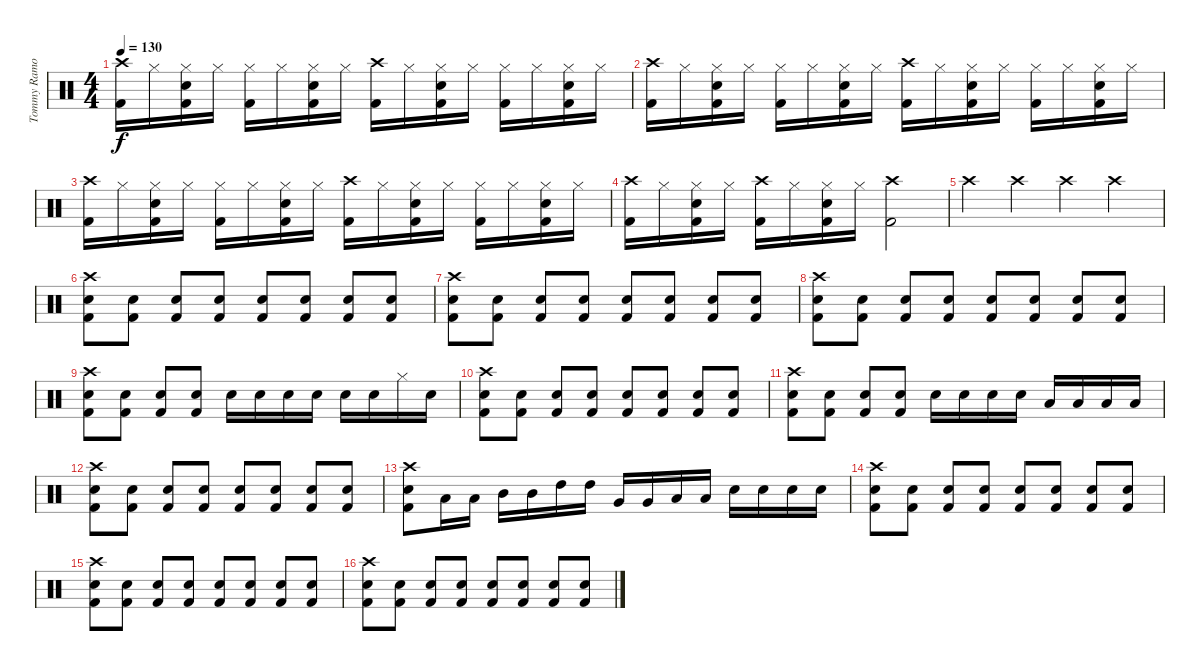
\track ("Tommy Ramone - Percusion" "Tommy Ramo") {instrument percussion}
\staff {score}
\articulation defaults
\ts (4 4)
\tempo 130
\clef neutral
\ks c
("Crash high (hit)" "Kick (hit) 2").16{dy f} "Hi-Hat (closed)".16 ("Hi-Hat (closed)" "Electric Snare (hit)" "Kick (hit) 2").16 "Hi-Hat (closed)".16 ("Hi-Hat (closed)" "Kick (hit) 2").16 "Hi-Hat (closed)".16 ("Hi-Hat (closed)" "Electric Snare (hit)" "Kick (hit) 2").16 "Hi-Hat (closed)".16 ("Crash high (hit)" "Kick (hit) 2").16 "Hi-Hat (closed)".16 ("Hi-Hat (closed)" "Electric Snare (hit)" "Kick (hit) 2").16 "Hi-Hat (closed)".16 ("Hi-Hat (closed)" "Kick (hit) 2").16 "Hi-Hat (closed)".16 ("Hi-Hat (closed)" "Electric Snare (hit)" "Kick (hit) 2").16 "Hi-Hat (closed)".16 |
("Crash high (hit)" "Kick (hit) 2").16 "Hi-Hat (closed)".16 ("Hi-Hat (closed)" "Electric Snare (hit)" "Kick (hit) 2").16 "Hi-Hat (closed)".16 ("Hi-Hat (closed)" "Kick (hit) 2").16 "Hi-Hat (closed)".16 ("Hi-Hat (closed)" "Electric Snare (hit)" "Kick (hit) 2").16 "Hi-Hat (closed)".16 ("Crash high (hit)" "Kick (hit) 2").16 "Hi-Hat (closed)".16 ("Hi-Hat (closed)" "Electric Snare (hit)" "Kick (hit) 2").16 "Hi-Hat (closed)".16 ("Hi-Hat (closed)" "Kick (hit) 2").16 "Hi-Hat (closed)".16 ("Hi-Hat (closed)" "Electric Snare (hit)" "Kick (hit) 2").16 "Hi-Hat (closed)".16 |
("Crash high (hit)" "Kick (hit) 2").16 "Hi-Hat (closed)".16 ("Hi-Hat (closed)" "Electric Snare (hit)" "Kick (hit) 2").16 "Hi-Hat (closed)".16 ("Hi-Hat (closed)" "Kick (hit) 2").16 "Hi-Hat (closed)".16 ("Hi-Hat (closed)" "Electric Snare (hit)" "Kick (hit) 2").16 "Hi-Hat (closed)".16 ("Crash high (hit)" "Kick (hit) 2").16 "Hi-Hat (closed)".16 ("Hi-Hat (closed)" "Electric Snare (hit)" "Kick (hit) 2").16 "Hi-Hat (closed)".16 ("Hi-Hat (closed)" "Kick (hit) 2").16 "Hi-Hat (closed)".16 ("Hi-Hat (closed)" "Electric Snare (hit)" "Kick (hit) 2").16 "Hi-Hat (closed)".16 |
("Crash high (hit)" "Kick (hit) 2").16 "Hi-Hat (closed)".16 ("Hi-Hat (closed)" "Electric Snare (hit)" "Kick (hit) 2").16 "Hi-Hat (closed)".16 ("Crash high (hit)" "Kick (hit) 2").16 "Hi-Hat (closed)".16 ("Hi-Hat (closed)" "Electric Snare (hit)" "Kick (hit) 2").16 "Hi-Hat (closed)".16 ("Crash high (hit)" "Kick (hit) 2").2 |
"Crash high (hit)".4 "Crash high (hit)".4 "Crash high (hit)".4 "Crash high (hit)".4 |
("Crash high (hit)" "Electric Snare (hit)" "Kick (hit) 2").8 ("Electric Snare (hit)" "Kick (hit) 2").8 ("Electric Snare (hit)" "Kick (hit) 2").8 ("Electric Snare (hit)" "Kick (hit) 2").8 ("Electric Snare (hit)" "Kick (hit) 2").8 ("Electric Snare (hit)" "Kick (hit) 2").8 ("Electric Snare (hit)" "Kick (hit) 2").8 ("Electric Snare (hit)" "Kick (hit) 2").8 |
("Crash high (hit)" "Electric Snare (hit)" "Kick (hit) 2").8 ("Electric Snare (hit)" "Kick (hit) 2").8 ("Electric Snare (hit)" "Kick (hit) 2").8 ("Electric Snare (hit)" "Kick (hit) 2").8 ("Electric Snare (hit)" "Kick (hit) 2").8 ("Electric Snare (hit)" "Kick (hit) 2").8 ("Electric Snare (hit)" "Kick (hit) 2").8 ("Electric Snare (hit)" "Kick (hit) 2").8 |
("Crash high (hit)" "Electric Snare (hit)" "Kick (hit) 2").8 ("Electric Snare (hit)" "Kick (hit) 2").8 ("Electric Snare (hit)" "Kick (hit) 2").8 ("Electric Snare (hit)" "Kick (hit) 2").8 ("Electric Snare (hit)" "Kick (hit) 2").8 ("Electric Snare (hit)" "Kick (hit) 2").8 ("Electric Snare (hit)" "Kick (hit) 2").8 ("Electric Snare (hit)" "Kick (hit) 2").8 |
("Crash high (hit)" "Electric Snare (hit)" "Kick (hit) 2").8 ("Electric Snare (hit)" "Kick (hit) 2").8 ("Electric Snare (hit)" "Kick (hit) 2").8 ("Electric Snare (hit)" "Kick (hit) 2").8 "Electric Snare (hit)".16 "Electric Snare (hit)".16 "Electric Snare (hit)".16 "Electric Snare (hit)".16 "Electric Snare (hit)".16 "Electric Snare (hit)".16 "Hi-Hat (closed)".16 "Electric Snare (hit)".16 |
("Crash high (hit)" "Electric Snare (hit)" "Kick (hit) 2").8 ("Electric Snare (hit)" "Kick (hit) 2").8 ("Electric Snare (hit)" "Kick (hit) 2").8 ("Electric Snare (hit)" "Kick (hit) 2").8 ("Electric Snare (hit)" "Kick (hit) 2").8 ("Electric Snare (hit)" "Kick (hit) 2").8 ("Electric Snare (hit)" "Kick (hit) 2").8 ("Electric Snare (hit)" "Kick (hit) 2").8 |
("Crash high (hit)" "Electric Snare (hit)" "Kick (hit) 2").8 ("Electric Snare (hit)" "Kick (hit) 2").8 ("Electric Snare (hit)" "Kick (hit) 2").8 ("Electric Snare (hit)" "Kick (hit) 2").8 "Electric Snare (hit)".16 "Electric Snare (hit)".16 "Electric Snare (hit)".16 "Electric Snare (hit)".16 "Low Tom (hit)".16 "Low Tom (hit)".16 "Low Tom (hit)".16 "Low Tom (hit)".16 |
("Crash high (hit)" "Electric Snare (hit)" "Kick (hit) 2").8 ("Electric Snare (hit)" "Kick (hit) 2").8 ("Electric Snare (hit)" "Kick (hit) 2").8 ("Electric Snare (hit)" "Kick (hit) 2").8 ("Electric Snare (hit)" "Kick (hit) 2").8 ("Electric Snare (hit)" "Kick (hit) 2").8 ("Electric Snare (hit)" "Kick (hit) 2").8 ("Electric Snare (hit)" "Kick (hit) 2").8 |
("Crash high (hit)" "Electric Snare (hit)" "Kick (hit) 2").8 "Low Tom (hit)".16 "Low Tom (hit)".16 "Mid Tom (hit)".16 "Mid Tom (hit)".16 "High Tom (hit)".16 "High Tom (hit)".16 "Very Low Tom (hit)".16 "Very Low Tom (hit)".16 "Low Floor Tom (hit)".16 "Low Floor Tom (hit)".16 "Electric Snare (hit)".16 "Electric Snare (hit)".16 "Electric Snare (hit)".16 "Electric Snare (hit)".16 |
("Crash high (hit)" "Electric Snare (hit)" "Kick (hit) 2").8 ("Electric Snare (hit)" "Kick (hit) 2").8 ("Electric Snare (hit)" "Kick (hit) 2").8 ("Electric Snare (hit)" "Kick (hit) 2").8 ("Electric Snare (hit)" "Kick (hit) 2").8 ("Electric Snare (hit)" "Kick (hit) 2").8 ("Electric Snare (hit)" "Kick (hit) 2").8 ("Electric Snare (hit)" "Kick (hit) 2").8 |
("Crash high (hit)" "Electric Snare (hit)" "Kick (hit) 2").8 ("Electric Snare (hit)" "Kick (hit) 2").8 ("Electric Snare (hit)" "Kick (hit) 2").8 ("Electric Snare (hit)" "Kick (hit) 2").8 ("Electric Snare (hit)" "Kick (hit) 2").8 ("Electric Snare (hit)" "Kick (hit) 2").8 ("Electric Snare (hit)" "Kick (hit) 2").8 ("Electric Snare (hit)" "Kick (hit) 2").8 |
("Crash high (hit)" "Electric Snare (hit)" "Kick (hit) 2").8 ("Electric Snare (hit)" "Kick (hit) 2").8 ("Electric Snare (hit)" "Kick (hit) 2").8 ("Electric Snare (hit)" "Kick (hit) 2").8 ("Electric Snare (hit)" "Kick (hit) 2").8 ("Electric Snare (hit)" "Kick (hit) 2").8 ("Electric Snare (hit)" "Kick (hit) 2").8 ("Electric Snare (hit)" "Kick (hit) 2").8
